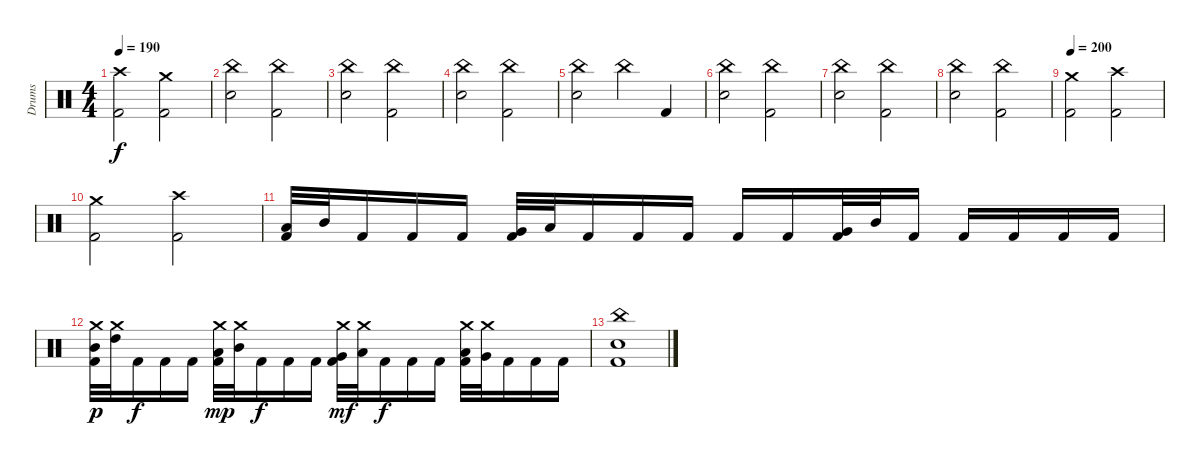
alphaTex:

\track ("Drums" "Drums") {instrument percussion}
\staff {score}
\articulation defaults
\ts (4 4)
\tempo 190
\clef neutral
\ks c
("Crash high (hit)" "Kick (hit) 2").2{dy f} ("Crash medium (hit)" "Kick (hit) 2").2 |
("China (hit)" "Electric Snare (hit)").2 ("China (hit)" "Kick (hit) 2").2 |
("China (hit)" "Electric Snare (hit)").2 ("China (hit)" "Kick (hit) 2").2 |
("China (hit)" "Electric Snare (hit)").2 ("China (hit)" "Kick (hit) 2").2 |
("China (hit)" "Electric Snare (hit)").2 "China (hit)".4 "Kick (hit) 2".4 |
("China (hit)" "Electric Snare (hit)").2 ("China (hit)" "Kick (hit) 2").2 |
("China (hit)" "Electric Snare (hit)").2 ("China (hit)" "Kick (hit) 2").2 |
("China (hit)" "Electric Snare (hit)").2 ("China (hit)" "Kick (hit) 2").2 |
\tempo 200
("Crash medium (hit)" "Kick (hit) 2").2 ("Crash high (hit)" "Kick (hit) 2").2 |
("Crash medium (hit)" "Kick (hit) 2").2 ("Crash high (hit)" "Kick (hit) 2").2 |
("Low Tom (hit)" "Kick (hit) 2").32 "Mid Tom (hit)".32 "Kick (hit) 2".16 "Kick (hit) 2".16 "Kick (hit) 2".16 ("Very Low Tom (hit)" "Kick (hit) 2").32 "Low Tom (hit)".32 "Kick (hit) 2".16 "Kick (hit) 2".16 "Kick (hit) 2".16 "Kick (hit) 2".16 "Kick (hit) 2".16 ("Very Low Tom (hit)" "Kick (hit) 2").32 "Mid Tom (hit)".32 "Kick (hit) 2".16 "Kick (hit) 2".16 "Kick (hit) 2".16 "Kick (hit) 2".16 "Kick (hit) 2".16 |
("Crash medium (hit)" "Mid Tom (hit)" "Kick (hit) 2").32{dy p} ("Crash medium (hit)" "High Tom (hit)").32 "Kick (hit) 2".16{dy f} "Kick (hit) 2".16 "Kick (hit) 2".16 ("Crash medium (hit)" "Low Tom (hit)" "Kick (hit) 2").32{dy mp} ("Crash medium (hit)" "Mid Tom (hit)").32 "Kick (hit) 2".16{dy f} "Kick (hit) 2".16 "Kick (hit) 2".16 ("Crash medium (hit)" "Very Low Tom (hit)" "Kick (hit) 2").32{dy mf} ("Crash medium (hit)" "Low Tom (hit)").32 "Kick (hit) 2".16{dy f} "Kick (hit) 2".16 "Kick (hit) 2".16 ("Crash medium (hit)" "Low Floor Tom (hit)" "Kick (hit) 2").32 ("Crash medium (hit)" "Very Low Tom (hit)").32 "Kick (hit) 2".16 "Kick (hit) 2".16 "Kick (hit) 2".16 |
("China (hit)" "Electric Snare (hit)" "Kick (hit) 2").1
